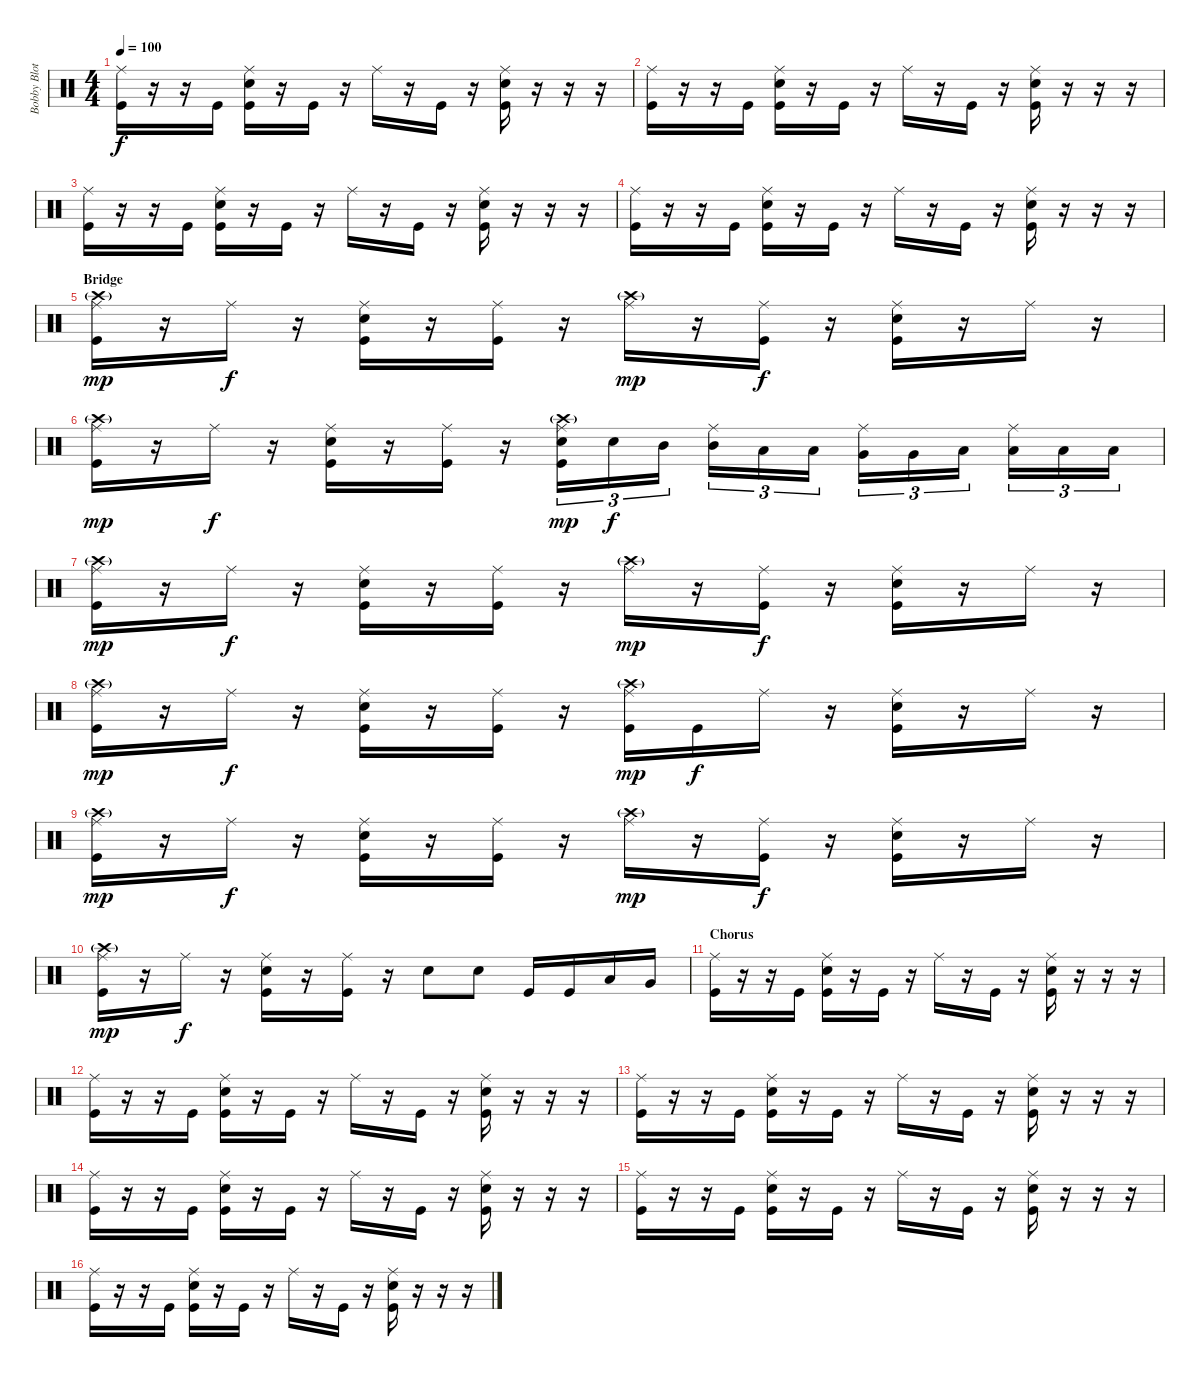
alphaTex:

\track ("Bobby Blotzer - Drums" "Bobby Blot") {instrument percussion}
\staff {score}
\articulation defaults
\ts (4 4)
\tempo 100
\clef neutral
\ks c
("Ride (middle)" "Kick (hit)").16{dy f} r.16 r.16 "Kick (hit)".16 ("Ride (middle)" "Snare (hit) 2" "Kick (hit)").16 r.16 "Kick (hit)".16 r.16 "Ride (middle)".16 r.16 "Kick (hit)".16 r.16 ("Ride (middle)" "Snare (hit) 2" "Kick (hit)").16 r.16 r.16 r.16 |
("Ride (middle)" "Kick (hit)").16 r.16 r.16 "Kick (hit)".16 ("Ride (middle)" "Snare (hit) 2" "Kick (hit)").16 r.16 "Kick (hit)".16 r.16 "Ride (middle)".16 r.16 "Kick (hit)".16 r.16 ("Ride (middle)" "Snare (hit) 2" "Kick (hit)").16 r.16 r.16 r.16 |
("Ride (middle)" "Kick (hit)").16 r.16 r.16 "Kick (hit)".16 ("Ride (middle)" "Snare (hit) 2" "Kick (hit)").16 r.16 "Kick (hit)".16 r.16 "Ride (middle)".16 r.16 "Kick (hit)".16 r.16 ("Ride (middle)" "Snare (hit) 2" "Kick (hit)").16 r.16 r.16 r.16 |
("Ride (middle)" "Kick (hit)").16 r.16 r.16 "Kick (hit)".16 ("Ride (middle)" "Snare (hit) 2" "Kick (hit)").16 r.16 "Kick (hit)".16 r.16 "Ride (middle)".16 r.16 "Kick (hit)".16 r.16 ("Ride (middle)" "Snare (hit) 2" "Kick (hit)").16 r.16 r.16 r.16 |
\section ("" "Bridge")
("Ride (middle)" "Crash high (hit)"{g} "Kick (hit)").16{dy mp} r.16 "Ride (middle)".16{dy f} r.16 ("Ride (middle)" "Snare (hit) 2" "Kick (hit)").16 r.16 ("Ride (middle)" "Kick (hit)").16 r.16 ("Ride (middle)" "Crash high (hit)"{g}).16{dy mp} r.16 ("Ride (middle)" "Kick (hit)").16{dy f} r.16 ("Ride (middle)" "Snare (hit) 2" "Kick (hit)").16 r.16 "Ride (middle)".16 r.16 |
("Ride (middle)" "Crash high (hit)"{g} "Kick (hit)").16{dy mp} r.16 "Ride (middle)".16{dy f} r.16 ("Ride (middle)" "Snare (hit) 2" "Kick (hit)").16 r.16 ("Ride (middle)" "Kick (hit)").16 r.16 ("Ride (middle)" "Crash high (hit)"{g} "Snare (hit) 2" "Kick (hit)").16{tu (3 2) dy mp} "Snare (hit) 2".16{tu (3 2) dy f} "Mid Tom (hit)".16{tu (3 2)} ("Ride (middle)" "Mid Tom (hit)").16{tu (3 2)} "Low Tom (hit)".16{tu (3 2)} "Low Tom (hit)".16{tu (3 2)} ("Ride (middle)" "Very Low Tom (hit)").16{tu (3 2)} "Very Low Tom (hit)".16{tu (3 2)} "Low Floor Tom (hit)".16{tu (3 2)} ("Ride (middle)" "Low Floor Tom (hit)").16{tu (3 2)} "Low Floor Tom (hit)".16{tu (3 2)} "Low Floor Tom (hit)".16{tu (3 2)} |
("Ride (middle)" "Crash high (hit)"{g} "Kick (hit)").16{dy mp} r.16 "Ride (middle)".16{dy f} r.16 ("Ride (middle)" "Snare (hit) 2" "Kick (hit)").16 r.16 ("Ride (middle)" "Kick (hit)").16 r.16 ("Ride (middle)" "Crash high (hit)"{g}).16{dy mp} r.16 ("Ride (middle)" "Kick (hit)").16{dy f} r.16 ("Ride (middle)" "Snare (hit) 2" "Kick (hit)").16 r.16 "Ride (middle)".16 r.16 |
("Ride (middle)" "Crash high (hit)"{g} "Kick (hit)").16{dy mp} r.16 "Ride (middle)".16{dy f} r.16 ("Ride (middle)" "Snare (hit) 2" "Kick (hit)").16 r.16 ("Ride (middle)" "Kick (hit)").16 r.16 ("Ride (middle)" "Crash high (hit)"{g} "Kick (hit)").16{dy mp} "Kick (hit)".16{dy f} "Ride (middle)".16 r.16 ("Ride (middle)" "Snare (hit) 2" "Kick (hit)").16 r.16 "Ride (middle)".16 r.16 |
("Ride (middle)" "Crash high (hit)"{g} "Kick (hit)").16{dy mp} r.16 "Ride (middle)".16{dy f} r.16 ("Ride (middle)" "Snare (hit) 2" "Kick (hit)").16 r.16 ("Ride (middle)" "Kick (hit)").16 r.16 ("Ride (middle)" "Crash high (hit)"{g}).16{dy mp} r.16 ("Ride (middle)" "Kick (hit)").16{dy f} r.16 ("Ride (middle)" "Snare (hit) 2" "Kick (hit)").16 r.16 "Ride (middle)".16 r.16 |
("Ride (middle)" "Crash high (hit)"{g} "Kick (hit)").16{dy mp} r.16 "Ride (middle)".16{dy f} r.16 ("Ride (middle)" "Snare (hit) 2" "Kick (hit)").16 r.16 ("Ride (middle)" "Kick (hit)").16 r.16 "Snare (hit) 2".8 "Snare (hit) 2".8 "Kick (hit)".16 "Kick (hit)".16 "Low Tom (hit)".16 "Very Low Tom (hit)".16 |
\section ("" "Chorus")
("Ride (middle)" "Kick (hit)").16 r.16 r.16 "Kick (hit)".16 ("Ride (middle)" "Snare (hit) 2" "Kick (hit)").16 r.16 "Kick (hit)".16 r.16 "Ride (middle)".16 r.16 "Kick (hit)".16 r.16 ("Ride (middle)" "Snare (hit) 2" "Kick (hit)").16 r.16 r.16 r.16 |
("Ride (middle)" "Kick (hit)").16 r.16 r.16 "Kick (hit)".16 ("Ride (middle)" "Snare (hit) 2" "Kick (hit)").16 r.16 "Kick (hit)".16 r.16 "Ride (middle)".16 r.16 "Kick (hit)".16 r.16 ("Ride (middle)" "Snare (hit) 2" "Kick (hit)").16 r.16 r.16 r.16 |
("Ride (middle)" "Kick (hit)").16 r.16 r.16 "Kick (hit)".16 ("Ride (middle)" "Snare (hit) 2" "Kick (hit)").16 r.16 "Kick (hit)".16 r.16 "Ride (middle)".16 r.16 "Kick (hit)".16 r.16 ("Ride (middle)" "Snare (hit) 2" "Kick (hit)").16 r.16 r.16 r.16 |
("Ride (middle)" "Kick (hit)").16 r.16 r.16 "Kick (hit)".16 ("Ride (middle)" "Snare (hit) 2" "Kick (hit)").16 r.16 "Kick (hit)".16 r.16 "Ride (middle)".16 r.16 "Kick (hit)".16 r.16 ("Ride (middle)" "Snare (hit) 2" "Kick (hit)").16 r.16 r.16 r.16 |
("Ride (middle)" "Kick (hit)").16 r.16 r.16 "Kick (hit)".16 ("Ride (middle)" "Snare (hit) 2" "Kick (hit)").16 r.16 "Kick (hit)".16 r.16 "Ride (middle)".16 r.16 "Kick (hit)".16 r.16 ("Ride (middle)" "Snare (hit) 2" "Kick (hit)").16 r.16 r.16 r.16 |
("Ride (middle)" "Kick (hit)").16 r.16 r.16 "Kick (hit)".16 ("Ride (middle)" "Snare (hit) 2" "Kick (hit)").16 r.16 "Kick (hit)".16 r.16 "Ride (middle)".16 r.16 "Kick (hit)".16 r.16 ("Ride (middle)" "Snare (hit) 2" "Kick (hit)").16 r.16 r.16 r.16
